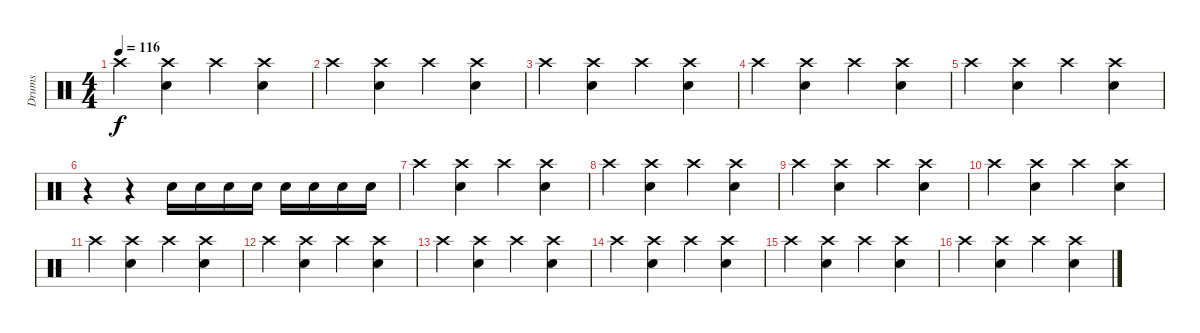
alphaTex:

\track ("Drums" "Drums") {instrument percussion}
\staff {score}
\articulation defaults
\ts (4 4)
\tempo 116
\clef neutral
\ks c "Crash high (hit)".4{dy f}
("Crash high (hit)" "Electric Snare (hit)").4 "Crash high (hit)".4 ("Crash high (hit)" "Electric Snare (hit)").4 |
"Crash high (hit)".4 ("Crash high (hit)" "Electric Snare (hit)").4 "Crash high (hit)".4 ("Crash high (hit)" "Electric Snare (hit)").4 |
"Crash high (hit)".4 ("Crash high (hit)" "Electric Snare (hit)").4 "Crash high (hit)".4 ("Crash high (hit)" "Electric Snare (hit)").4 |
"Crash high (hit)".4 ("Crash high (hit)" "Electric Snare (hit)").4 "Crash high (hit)".4 ("Crash high (hit)" "Electric Snare (hit)").4 |
"Crash high (hit)".4 ("Crash high (hit)" "Electric Snare (hit)").4 "Crash high (hit)".4 ("Crash high (hit)" "Electric Snare (hit)").4 |
r.4 r.4 "Electric Snare (hit)".16 "Electric Snare (hit)".16 "Electric Snare (hit)".16 "Electric Snare (hit)".16 "Electric Snare (hit)".16 "Electric Snare (hit)".16 "Electric Snare (hit)".16 "Electric Snare (hit)".16 |
"Crash high (hit)".4 ("Crash high (hit)" "Electric Snare (hit)").4 "Crash high (hit)".4 ("Crash high (hit)" "Electric Snare (hit)").4 |
"Crash high (hit)".4 ("Crash high (hit)" "Electric Snare (hit)").4 "Crash high (hit)".4 ("Crash high (hit)" "Electric Snare (hit)").4 |
"Crash high (hit)".4 ("Crash high (hit)" "Electric Snare (hit)").4 "Crash high (hit)".4 ("Crash high (hit)" "Electric Snare (hit)").4 |
"Crash high (hit)".4 ("Crash high (hit)" "Electric Snare (hit)").4 "Crash high (hit)".4 ("Crash high (hit)" "Electric Snare (hit)").4 |
"Crash high (hit)".4 ("Crash high (hit)" "Electric Snare (hit)").4 "Crash high (hit)".4 ("Crash high (hit)" "Electric Snare (hit)").4 |
"Crash high (hit)".4 ("Crash high (hit)" "Electric Snare (hit)").4 "Crash high (hit)".4 ("Crash high (hit)" "Electric Snare (hit)").4 |
"Crash high (hit)".4 ("Crash high (hit)" "Electric Snare (hit)").4 "Crash high (hit)".4 ("Crash high (hit)" "Electric Snare (hit)").4 |
"Crash high (hit)".4 ("Crash high (hit)" "Electric Snare (hit)").4 "Crash high (hit)".4 ("Crash high (hit)" "Electric Snare (hit)").4 |
"Crash high (hit)".4 ("Crash high (hit)" "Electric Snare (hit)").4 "Crash high (hit)".4 ("Crash high (hit)" "Electric Snare (hit)").4 |
"Crash high (hit)".4 ("Crash high (hit)" "Electric Snare (hit)").4 "Crash high (hit)".4 ("Crash high (hit)" "Electric Snare (hit)").4
